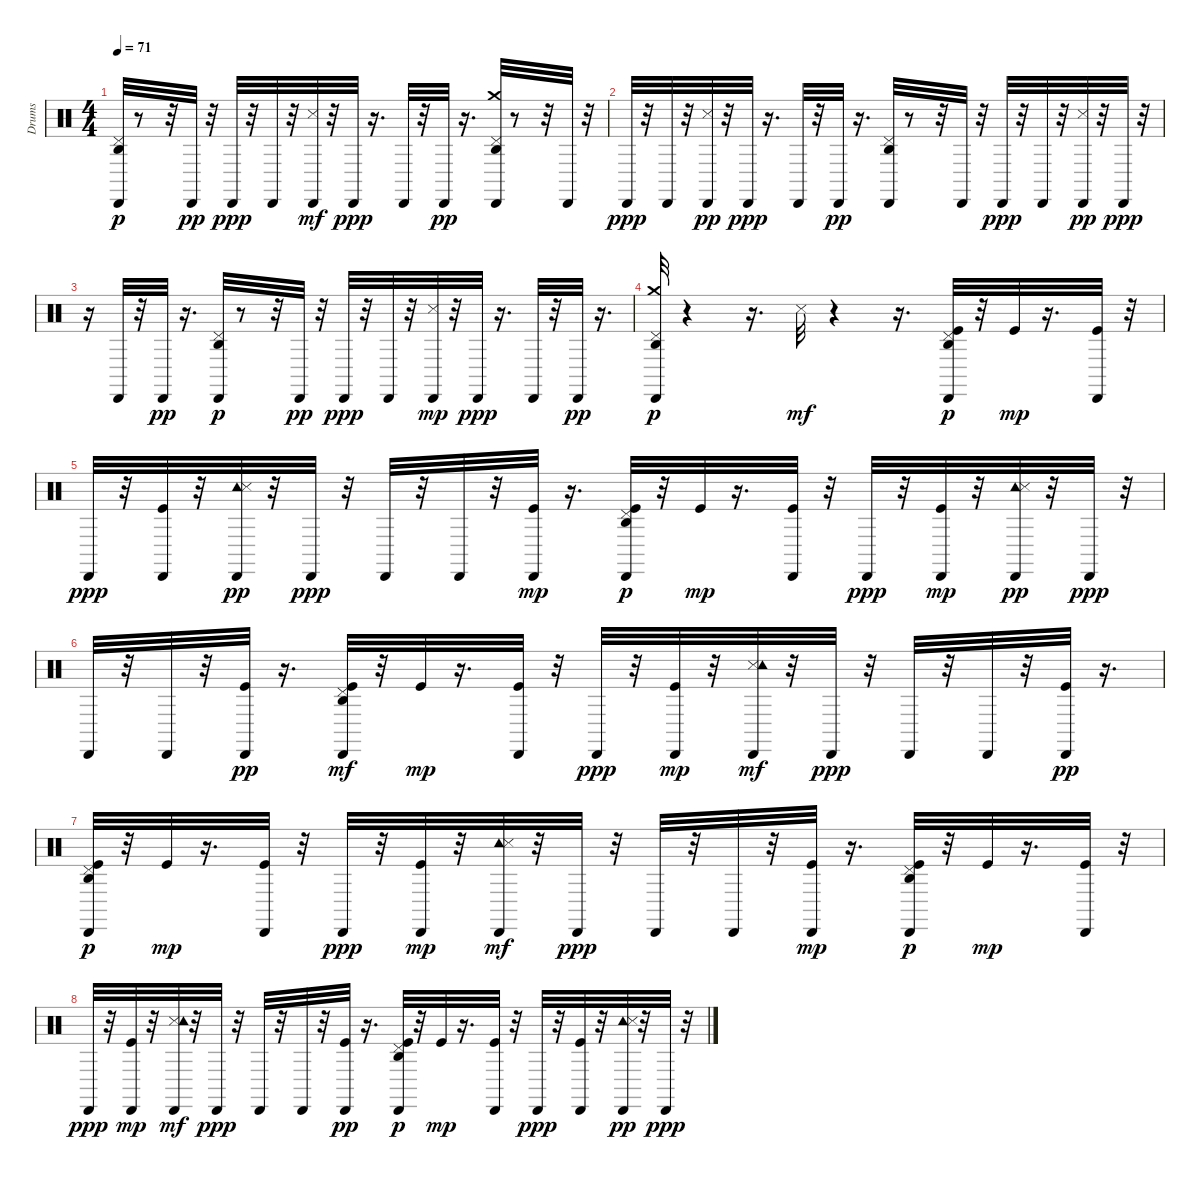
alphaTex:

\track ("Drums" "Drums") {instrument percussion}
\staff {score}
\articulation defaults
\ts (4 4)
\tempo 71
\clef neutral
\ks c
("Cabasa (hit)" "Pedal Hi-Hat (hit)" "Agogo high (hit)").32{dy p} r.8 r.32 "Cabasa (hit)".32{dy pp} r.32 "Cabasa (hit)".32{dy ppp} r.32 "Cabasa (hit)".32 r.32 ("Cabasa (hit)" "Metronome (hit)").32{dy mf} r.32 "Cabasa (hit)".32{dy ppp} r.16{d} "Cabasa (hit)".32 r.32 "Cabasa (hit)".32{dy pp} r.16{d} ("Agogo high (hit)" "Pedal Hi-Hat (hit)" "Cabasa (hit)" "Crash medium (hit)").32 r.8 r.32 "Cabasa (hit)".32 r.32 |
"Cabasa (hit)".32{dy ppp} r.32 "Cabasa (hit)".32 r.32 ("Metronome (hit)" "Cabasa (hit)").32{dy pp} r.32 "Cabasa (hit)".32{dy ppp} r.16{d} "Cabasa (hit)".32 r.32 "Cabasa (hit)".32{dy pp} r.16{d} ("Agogo high (hit)" "Pedal Hi-Hat (hit)" "Cabasa (hit)").32 r.8 r.32 "Cabasa (hit)".32 r.32 "Cabasa (hit)".32{dy ppp} r.32 "Cabasa (hit)".32 r.32 ("Metronome (hit)" "Cabasa (hit)").32{dy pp} r.32 "Cabasa (hit)".32{dy ppp} r.32 |
r.16 "Cabasa (hit)".32 r.32 "Cabasa (hit)".32{dy pp} r.16{d} ("Cabasa (hit)" "Pedal Hi-Hat (hit)" "Agogo high (hit)").32{dy p} r.8 r.32 "Cabasa (hit)".32{dy pp} r.32 "Cabasa (hit)".32{dy ppp} r.32 "Cabasa (hit)".32 r.32 ("Cabasa (hit)" "Metronome (hit)").32{dy mp} r.32 "Cabasa (hit)".32{dy ppp} r.16{d} "Cabasa (hit)".32 r.32 "Cabasa (hit)".32{dy pp} r.16{d} |
("Cabasa (hit)" "Pedal Hi-Hat (hit)" "Agogo high (hit)" "Crash medium (hit)").32{dy p} r.4 r.16{d} "Metronome (hit)".32{dy mf} r.4 r.16{d} ("Kick (hit)" "Pedal Hi-Hat (hit)" "Cabasa (hit)" "Agogo high (hit)").32{dy p} r.32 "Kick (hit)".32{dy mp} r.16{d} ("Cabasa (hit)" "Kick (hit)").32 r.32 |
"Cabasa (hit)".32{dy ppp} r.32 ("Kick (hit)" "Cabasa (hit)").32 r.32 ("Tambourine (hit)" "Metronome (hit)" "Cabasa (hit)").32{dy pp} r.32 "Cabasa (hit)".32{dy ppp} r.32 "Cabasa (hit)".32 r.32 "Cabasa (hit)".32 r.32 ("Cabasa (hit)" "Kick (hit)").32{dy mp} r.16{d} ("Pedal Hi-Hat (hit)" "Kick (hit)" "Cabasa (hit)" "Agogo high (hit)").32{dy p} r.32 "Kick (hit)".32{dy mp} r.16{d} ("Cabasa (hit)" "Kick (hit)").32 r.32 "Cabasa (hit)".32{dy ppp} r.32 ("Cabasa (hit)" "Kick (hit)").32{dy mp} r.32 ("Tambourine (hit)" "Metronome (hit)" "Cabasa (hit)").32{dy pp} r.32 "Cabasa (hit)".32{dy ppp} r.32 |
"Cabasa (hit)".32 r.32 "Cabasa (hit)".32 r.32 ("Kick (hit)" "Cabasa (hit)").32{dy pp} r.16{d} ("Agogo high (hit)" "Kick (hit)" "Cabasa (hit)" "Pedal Hi-Hat (hit)").32{dy mf} r.32 "Kick (hit)".32{dy mp} r.16{d} ("Cabasa (hit)" "Kick (hit)").32 r.32 "Cabasa (hit)".32{dy ppp} r.32 ("Cabasa (hit)" "Kick (hit)").32{dy mp} r.32 ("Metronome (hit)" "Cabasa (hit)" "Tambourine (hit)").32{dy mf} r.32 "Cabasa (hit)".32{dy ppp} r.32 "Cabasa (hit)".32 r.32 "Cabasa (hit)".32 r.32 ("Kick (hit)" "Cabasa (hit)").32{dy pp} r.16{d} |
("Cabasa (hit)" "Pedal Hi-Hat (hit)" "Agogo high (hit)" "Kick (hit)").32{dy p} r.32 "Kick (hit)".32{dy mp} r.16{d} ("Cabasa (hit)" "Kick (hit)").32 r.32 "Cabasa (hit)".32{dy ppp} r.32 ("Cabasa (hit)" "Kick (hit)").32{dy mp} r.32 ("Cabasa (hit)" "Tambourine (hit)" "Metronome (hit)").32{dy mf} r.32 "Cabasa (hit)".32{dy ppp} r.32 "Cabasa (hit)".32 r.32 "Cabasa (hit)".32 r.32 ("Cabasa (hit)" "Kick (hit)").32{dy mp} r.16{d} ("Cabasa (hit)" "Pedal Hi-Hat (hit)" "Kick (hit)" "Agogo high (hit)").32{dy p} r.32 "Kick (hit)".32{dy mp} r.16{d} ("Cabasa (hit)" "Kick (hit)").32 r.32 |
"Cabasa (hit)".32{dy ppp} r.32 ("Cabasa (hit)" "Kick (hit)").32{dy mp} r.32 ("Metronome (hit)" "Cabasa (hit)" "Tambourine (hit)").32{dy mf} r.32 "Cabasa (hit)".32{dy ppp} r.32 "Cabasa (hit)".32 r.32 "Cabasa (hit)".32 r.32 ("Kick (hit)" "Cabasa (hit)").32{dy pp} r.16{d} ("Pedal Hi-Hat (hit)" "Cabasa (hit)" "Kick (hit)" "Agogo high (hit)").32{dy p} r.32 "Kick (hit)".32{dy mp} r.16{d} ("Cabasa (hit)" "Kick (hit)").32 r.32 "Cabasa (hit)".32{dy ppp} r.32 ("Kick (hit)" "Cabasa (hit)").32 r.32 ("Tambourine (hit)" "Metronome (hit)" "Cabasa (hit)").32{dy pp} r.32 "Cabasa (hit)".32{dy ppp} r.32
